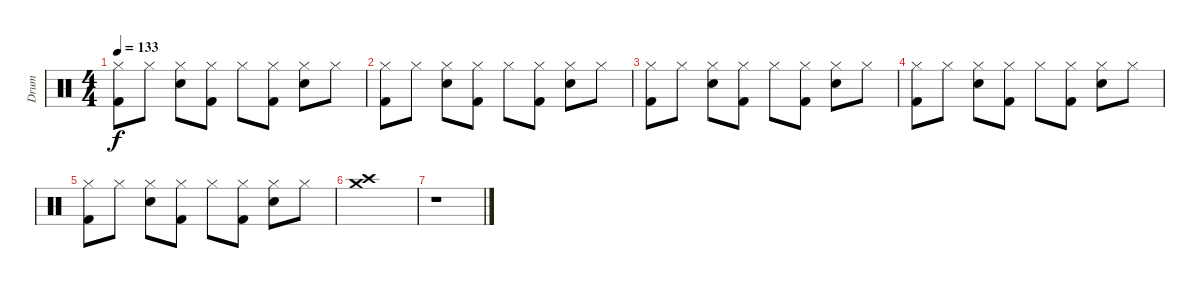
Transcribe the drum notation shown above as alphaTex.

\track ("Drum" "Drum") {instrument percussion}
\staff {score}
\articulation defaults
\ts (4 4)
\tempo 133
\clef neutral
\ks c
("Hi-Hat (closed)" "Kick (hit) 2").8{dy f} "Hi-Hat (closed)".8 ("Snare (hit) 2" "Hi-Hat (closed)").8 ("Hi-Hat (closed)" "Kick (hit) 2").8 "Hi-Hat (closed)".8 ("Hi-Hat (closed)" "Kick (hit) 2").8 ("Snare (hit) 2" "Hi-Hat (closed)").8 "Hi-Hat (closed)".8 |
("Hi-Hat (closed)" "Kick (hit) 2").8 "Hi-Hat (closed)".8 ("Snare (hit) 2" "Hi-Hat (closed)").8 ("Hi-Hat (closed)" "Kick (hit) 2").8 "Hi-Hat (closed)".8 ("Hi-Hat (closed)" "Kick (hit) 2").8 ("Snare (hit) 2" "Hi-Hat (closed)").8 "Hi-Hat (closed)".8 |
("Hi-Hat (closed)" "Kick (hit) 2").8 "Hi-Hat (closed)".8 ("Snare (hit) 2" "Hi-Hat (closed)").8 ("Hi-Hat (closed)" "Kick (hit) 2").8 "Hi-Hat (closed)".8 ("Hi-Hat (closed)" "Kick (hit) 2").8 ("Snare (hit) 2" "Hi-Hat (closed)").8 "Hi-Hat (closed)".8 |
("Hi-Hat (closed)" "Kick (hit) 2").8 "Hi-Hat (closed)".8 ("Snare (hit) 2" "Hi-Hat (closed)").8 ("Hi-Hat (closed)" "Kick (hit) 2").8 "Hi-Hat (closed)".8 ("Hi-Hat (closed)" "Kick (hit) 2").8 ("Snare (hit) 2" "Hi-Hat (closed)").8 "Hi-Hat (closed)".8 |
("Hi-Hat (closed)" "Kick (hit) 2").8 "Hi-Hat (closed)".8 ("Snare (hit) 2" "Hi-Hat (closed)").8 ("Hi-Hat (closed)" "Kick (hit) 2").8 "Hi-Hat (closed)".8 ("Hi-Hat (closed)" "Kick (hit) 2").8 ("Snare (hit) 2" "Hi-Hat (closed)").8 "Hi-Hat (closed)".8 |
("Crash high (hit)" "Crash medium (hit)").1 |
r.1
